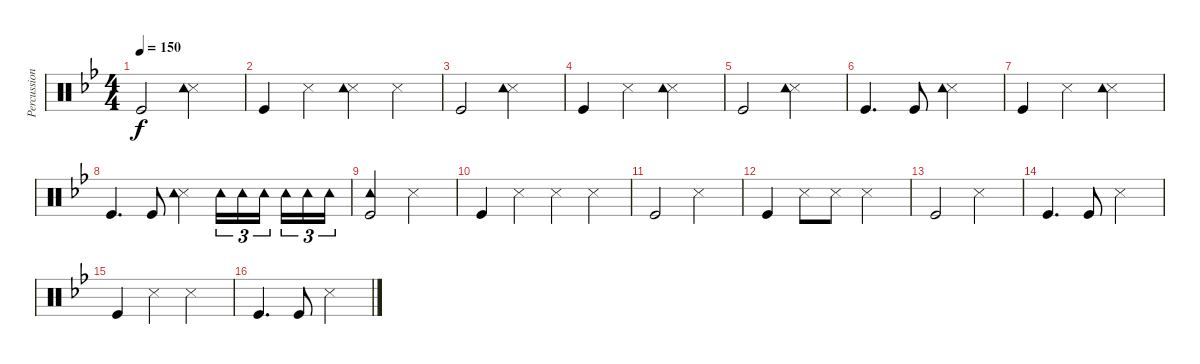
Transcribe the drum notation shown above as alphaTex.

\track ("Percussion" "Percussion") {instrument percussion}
\staff {score}
\articulation defaults
\ts (4 4)
\tempo 150
\clef neutral
\ks gminor "Kick (hit)".2{dy f}
("Snare (side stick) 3" "Tambourine (hit)").2 |
"Kick (hit)".4 "Snare (side stick) 3".4 ("Snare (side stick) 3" "Tambourine (hit)").4 "Snare (side stick) 3".4 |
"Kick (hit)".2 ("Snare (side stick) 3" "Tambourine (hit)").2 |
"Kick (hit)".4 "Snare (side stick) 3".4 ("Snare (side stick) 3" "Tambourine (hit)").2 |
"Kick (hit)".2 ("Snare (side stick) 3" "Tambourine (hit)").2 |
"Kick (hit)".4{d} "Kick (hit)".8 ("Snare (side stick) 3" "Tambourine (hit)").2 |
"Kick (hit)".4 "Snare (side stick) 3".4 ("Snare (side stick) 3" "Tambourine (hit)").2 |
"Kick (hit)".4{d} "Kick (hit)".8 ("Snare (side stick) 3" "Tambourine (hit)").4 "Tambourine (hit)".16{tu (3 2)} "Tambourine (hit)".16{tu (3 2)} "Tambourine (hit)".16{tu (3 2) beam splitsecondary} "Tambourine (hit)".16{tu (3 2)} "Tambourine (hit)".16{tu (3 2)} "Tambourine (hit)".16{tu (3 2)} |
("Tambourine (hit)" "Kick (hit)").2 "Snare (side stick) 3".2 |
"Kick (hit)".4 "Snare (side stick) 3".4 "Snare (side stick) 3".4 "Snare (side stick) 3".4 |
"Kick (hit)".2 "Snare (side stick) 3".2 |
"Kick (hit)".4 "Snare (side stick) 3".8 "Snare (side stick) 3".8 "Snare (side stick) 3".2 |
"Kick (hit)".2 "Snare (side stick) 3".2 |
"Kick (hit)".4{d} "Kick (hit)".8 "Snare (side stick) 3".2 |
"Kick (hit)".4 "Snare (side stick) 3".4 "Snare (side stick) 3".2 |
"Kick (hit)".4{d} "Kick (hit)".8 "Snare (side stick) 3".2
